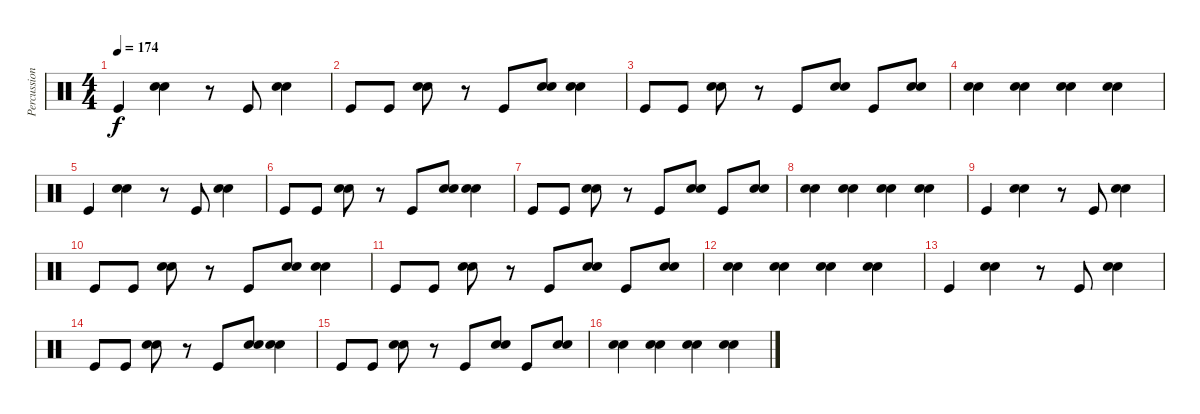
\track ("Percussion" "Percussion") {instrument percussion}
\staff {score}
\articulation defaults
\ts (4 4)
\tempo 174
\clef neutral
\ks c "Kick (hit)".4{dy f}
("Snare (hit) 2" "Snare (hit) 2").4 r.8 "Kick (hit)".8 ("Snare (hit) 2" "Snare (hit) 2").4 |
"Kick (hit)".8 "Kick (hit)".8 ("Snare (hit) 2" "Snare (hit) 2").8 r.8 "Kick (hit)".8 ("Snare (hit) 2" "Snare (hit) 2").8 ("Snare (hit) 2" "Snare (hit) 2").4 |
"Kick (hit)".8 "Kick (hit)".8 ("Snare (hit) 2" "Snare (hit) 2").8 r.8 "Kick (hit)".8 ("Snare (hit) 2" "Snare (hit) 2").8 "Kick (hit)".8 ("Snare (hit) 2" "Snare (hit) 2").8 |
("Snare (hit) 2" "Snare (hit) 2").4 ("Snare (hit) 2" "Snare (hit) 2").4 ("Snare (hit) 2" "Snare (hit) 2").4 ("Snare (hit) 2" "Snare (hit) 2").4 |
"Kick (hit)".4 ("Snare (hit) 2" "Snare (hit) 2").4 r.8 "Kick (hit)".8 ("Snare (hit) 2" "Snare (hit) 2").4 |
"Kick (hit)".8 "Kick (hit)".8 ("Snare (hit) 2" "Snare (hit) 2").8 r.8 "Kick (hit)".8 ("Snare (hit) 2" "Snare (hit) 2").8 ("Snare (hit) 2" "Snare (hit) 2").4 |
"Kick (hit)".8 "Kick (hit)".8 ("Snare (hit) 2" "Snare (hit) 2").8 r.8 "Kick (hit)".8 ("Snare (hit) 2" "Snare (hit) 2").8 "Kick (hit)".8 ("Snare (hit) 2" "Snare (hit) 2").8 |
("Snare (hit) 2" "Snare (hit) 2").4 ("Snare (hit) 2" "Snare (hit) 2").4 ("Snare (hit) 2" "Snare (hit) 2").4 ("Snare (hit) 2" "Snare (hit) 2").4 |
"Kick (hit)".4 ("Snare (hit) 2" "Snare (hit) 2").4 r.8 "Kick (hit)".8 ("Snare (hit) 2" "Snare (hit) 2").4 |
"Kick (hit)".8 "Kick (hit)".8 ("Snare (hit) 2" "Snare (hit) 2").8 r.8 "Kick (hit)".8 ("Snare (hit) 2" "Snare (hit) 2").8 ("Snare (hit) 2" "Snare (hit) 2").4 |
"Kick (hit)".8 "Kick (hit)".8 ("Snare (hit) 2" "Snare (hit) 2").8 r.8 "Kick (hit)".8 ("Snare (hit) 2" "Snare (hit) 2").8 "Kick (hit)".8 ("Snare (hit) 2" "Snare (hit) 2").8 |
("Snare (hit) 2" "Snare (hit) 2").4 ("Snare (hit) 2" "Snare (hit) 2").4 ("Snare (hit) 2" "Snare (hit) 2").4 ("Snare (hit) 2" "Snare (hit) 2").4 |
"Kick (hit)".4 ("Snare (hit) 2" "Snare (hit) 2").4 r.8 "Kick (hit)".8 ("Snare (hit) 2" "Snare (hit) 2").4 |
"Kick (hit)".8 "Kick (hit)".8 ("Snare (hit) 2" "Snare (hit) 2").8 r.8 "Kick (hit)".8 ("Snare (hit) 2" "Snare (hit) 2").8 ("Snare (hit) 2" "Snare (hit) 2").4 |
"Kick (hit)".8 "Kick (hit)".8 ("Snare (hit) 2" "Snare (hit) 2").8 r.8 "Kick (hit)".8 ("Snare (hit) 2" "Snare (hit) 2").8 "Kick (hit)".8 ("Snare (hit) 2" "Snare (hit) 2").8 |
("Snare (hit) 2" "Snare (hit) 2").4 ("Snare (hit) 2" "Snare (hit) 2").4 ("Snare (hit) 2" "Snare (hit) 2").4 ("Snare (hit) 2" "Snare (hit) 2").4
